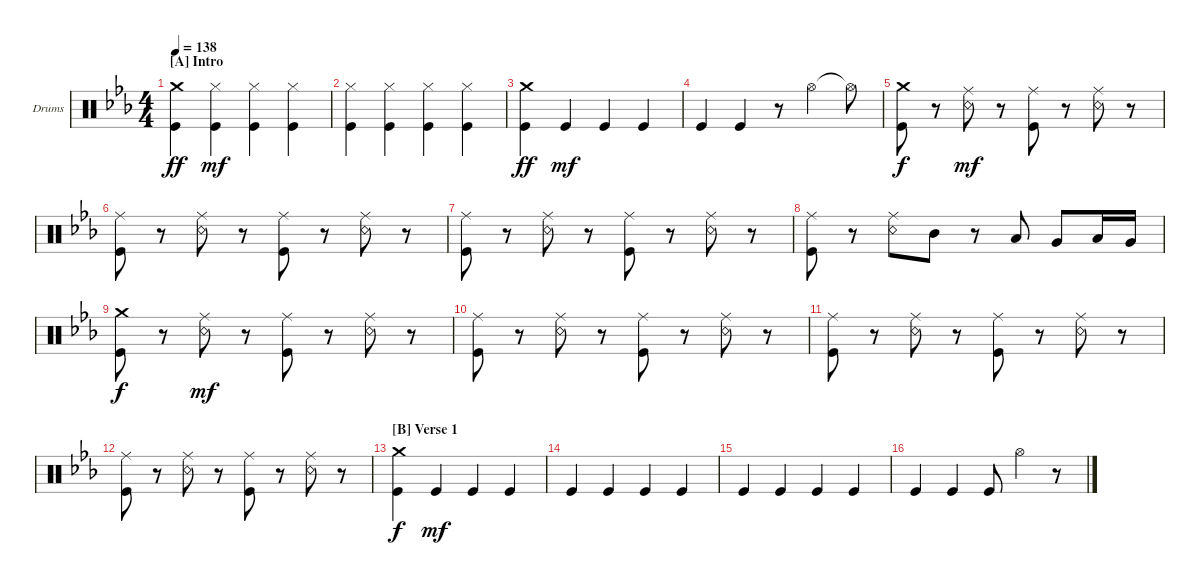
\defaultSystemsLayout 4
\bracketExtendMode groupsimilarinstruments
\firstSystemTrackNameOrientation horizontal
\otherSystemsTrackNameOrientation horizontal
\track ("Drums" "Drums") {instrument percussion}
\staff {score}
\articulation defaults
\ts (4 4)
\section ("A" "Intro")
\tempo 138
\clef neutral
\ks eb
("Kick (hit)" "Crash medium (hit)").4{dy ff} ("Kick (hit)" "Hi-Hat (closed)").4{dy mf} ("Kick (hit)" "Hi-Hat (closed)").4 ("Kick (hit)" "Hi-Hat (closed)").4 |
("Kick (hit)" "Hi-Hat (closed)").4 ("Kick (hit)" "Hi-Hat (closed)").4 ("Kick (hit)" "Hi-Hat (closed)").4 ("Kick (hit)" "Hi-Hat (closed)").4 |
("Kick (hit)" "Crash medium (hit)").4{dy ff} "Kick (hit)".4{dy mf} "Kick (hit)".4 "Kick (hit)".4 |
"Kick (hit)".4 "Kick (hit)".4 r.8 "Hi-Hat (open)".4 "Hi-Hat (open)"{t}.8 |
("Kick (hit)" "Crash medium (hit)").8{dy f} r.8 ("Snare (rim shot)" "Ride (middle)").8{dy mf} r.8 ("Ride (middle)" "Kick (hit)").8 r.8 ("Ride (middle)" "Snare (rim shot)").8 r.8 |
("Kick (hit)" "Ride (middle)").8 r.8 ("Snare (rim shot)" "Ride (middle)").8 r.8 ("Ride (middle)" "Kick (hit)").8 r.8 ("Ride (middle)" "Snare (rim shot)").8 r.8 |
("Kick (hit)" "Ride (middle)").8 r.8 ("Snare (rim shot)" "Ride (middle)").8 r.8 ("Ride (middle)" "Kick (hit)").8 r.8 ("Ride (middle)" "Snare (rim shot)").8 r.8 |
("Kick (hit)" "Ride (middle)").8 r.8 ("Snare (rim shot)" "Ride (middle)").8 "Mid Tom (hit)".8 r.8 "Low Tom (hit)".8 "Very Low Tom (hit)".8 "Low Tom (hit)".16 "Very Low Tom (hit)".16 |
("Kick (hit)" "Crash medium (hit)").8{dy f} r.8 ("Snare (rim shot)" "Ride (middle)").8{dy mf} r.8 ("Ride (middle)" "Kick (hit)").8 r.8 ("Ride (middle)" "Snare (rim shot)").8 r.8 |
("Kick (hit)" "Ride (middle)").8 r.8 ("Snare (rim shot)" "Ride (middle)").8 r.8 ("Ride (middle)" "Kick (hit)").8 r.8 ("Ride (middle)" "Snare (rim shot)").8 r.8 |
("Kick (hit)" "Ride (middle)").8 r.8 ("Snare (rim shot)" "Ride (middle)").8 r.8 ("Ride (middle)" "Kick (hit)").8 r.8 ("Ride (middle)" "Snare (rim shot)").8 r.8 |
("Kick (hit)" "Ride (middle)").8 r.8 ("Snare (rim shot)" "Ride (middle)").8 r.8 ("Ride (middle)" "Kick (hit)").8 r.8 ("Ride (middle)" "Snare (rim shot)").8 r.8 |
\section ("B" "Verse 1")
("Kick (hit)" "Crash medium (hit)").4{dy f} "Kick (hit)".4{dy mf} "Kick (hit)".4 "Kick (hit)".4 |
"Kick (hit)".4 "Kick (hit)".4 "Kick (hit)".4 "Kick (hit)".4 |
"Kick (hit)".4 "Kick (hit)".4 "Kick (hit)".4 "Kick (hit)".4 |
"Kick (hit)".4 "Kick (hit)".4 "Kick (hit)".8 "Hi-Hat (open)".4 r.8
